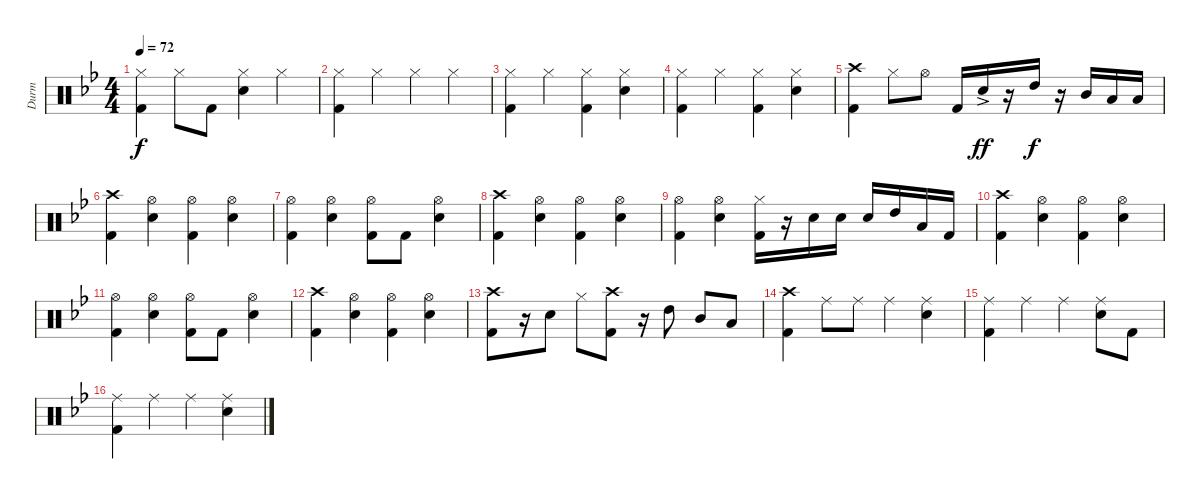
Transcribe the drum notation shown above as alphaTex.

\track ("Durm" "Durm") {instrument percussion}
\staff {score}
\articulation defaults
\ts (4 4)
\tempo 72
\clef neutral
\ks bb
("Hi-Hat (closed)" "Kick (hit) 2").4{dy f} "Hi-Hat (closed)".8 "Kick (hit) 2".8 ("Hi-Hat (closed)" "Electric Snare (hit)").4 "Hi-Hat (closed)".4 |
("Hi-Hat (closed)" "Kick (hit) 2").4 "Hi-Hat (closed)".4 "Hi-Hat (closed)".4 "Hi-Hat (closed)".4 |
("Hi-Hat (closed)" "Kick (hit) 2").4 "Hi-Hat (closed)".4 ("Hi-Hat (closed)" "Kick (hit) 2").4 ("Hi-Hat (closed)" "Electric Snare (hit)").4 |
("Hi-Hat (closed)" "Kick (hit) 2").4 "Hi-Hat (closed)".4 ("Hi-Hat (closed)" "Kick (hit) 2").4 ("Hi-Hat (closed)" "Electric Snare (hit)").4 |
("Crash high (hit)" "Kick (hit) 2").4 "Hi-Hat (closed)".8 "Hi-Hat (open)".8 "Kick (hit) 2".16 "Electric Snare (hit)"{ac}.16{dy ff} r.16 "High Tom (hit)".16{dy f} r.16 "Mid Tom (hit)".16 "Low Floor Tom (hit)".16 "Low Floor Tom (hit)".16 |
("Crash high (hit)" "Kick (hit) 2").4 ("Hi-Hat (open)" "Electric Snare (hit)").4 ("Hi-Hat (open)" "Kick (hit) 2").4 ("Hi-Hat (open)" "Electric Snare (hit)").4 |
("Hi-Hat (open)" "Kick (hit) 2").4 ("Hi-Hat (open)" "Electric Snare (hit)").4 ("Hi-Hat (open)" "Kick (hit) 2").8 "Kick (hit) 2".8 ("Hi-Hat (open)" "Electric Snare (hit)").4 |
("Crash high (hit)" "Kick (hit) 2").4 ("Hi-Hat (open)" "Electric Snare (hit)").4 ("Hi-Hat (open)" "Kick (hit) 2").4 ("Hi-Hat (open)" "Electric Snare (hit)").4 |
("Hi-Hat (open)" "Kick (hit) 2").4 ("Hi-Hat (open)" "Electric Snare (hit)").4 ("Hi-Hat (closed)" "Kick (hit) 2").16 r.16 "Electric Snare (hit)".16 "Electric Snare (hit)".16 "Electric Snare (hit)".16 "High Tom (hit)".16 "Low Floor Tom (hit)".16 "Kick (hit) 2".16 |
("Crash high (hit)" "Kick (hit) 2").4 ("Hi-Hat (open)" "Electric Snare (hit)").4 ("Hi-Hat (open)" "Kick (hit) 2").4 ("Hi-Hat (open)" "Electric Snare (hit)").4 |
("Hi-Hat (open)" "Kick (hit) 2").4 ("Hi-Hat (open)" "Electric Snare (hit)").4 ("Hi-Hat (open)" "Kick (hit) 2").8 "Kick (hit) 2".8 ("Hi-Hat (open)" "Electric Snare (hit)").4 |
("Crash high (hit)" "Kick (hit) 2").4 ("Hi-Hat (open)" "Electric Snare (hit)").4 ("Hi-Hat (open)" "Kick (hit) 2").4 ("Hi-Hat (open)" "Electric Snare (hit)").4 |
("Crash high (hit)" "Kick (hit) 2").8 r.16 "Electric Snare (hit)".8 "Hi-Hat (closed)".8 ("Crash high (hit)" "Kick (hit) 2").8 r.16 "High Tom (hit)".8 "Mid Tom (hit)".8 "Low Floor Tom (hit)".8 |
("Crash high (hit)" "Kick (hit) 2").4 "Ride (middle)".8 "Ride (middle)".8 "Ride (middle)".4 ("Ride (middle)" "Electric Snare (hit)").4 |
("Ride (middle)" "Kick (hit) 2").4 "Ride (middle)".4 "Ride (middle)".4 ("Ride (middle)" "Electric Snare (hit)").8 "Kick (hit) 2".8 |
("Ride (middle)" "Kick (hit) 2").4 "Ride (middle)".4 "Ride (middle)".4 ("Ride (middle)" "Electric Snare (hit)").4
